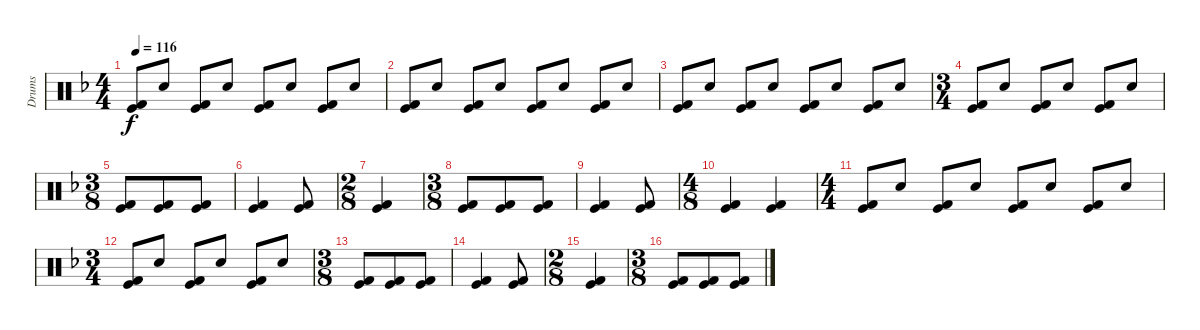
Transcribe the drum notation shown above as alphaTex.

\track ("Drums" "Drums") {instrument percussion}
\staff {score}
\articulation defaults
\ts (4 4)
\tempo 116
\clef neutral
\ks f
("Kick (hit)" "Kick (hit) 2").8{dy f} "Snare (hit) 2".8 ("Kick (hit)" "Kick (hit) 2").8 "Snare (hit) 2".8 ("Kick (hit)" "Kick (hit) 2").8 "Snare (hit) 2".8 ("Kick (hit)" "Kick (hit) 2").8 "Snare (hit) 2".8 |
("Kick (hit)" "Kick (hit) 2").8 "Snare (hit) 2".8 ("Kick (hit)" "Kick (hit) 2").8 "Snare (hit) 2".8 ("Kick (hit)" "Kick (hit) 2").8 "Snare (hit) 2".8 ("Kick (hit)" "Kick (hit) 2").8 "Snare (hit) 2".8 |
("Kick (hit)" "Kick (hit) 2").8 "Snare (hit) 2".8 ("Kick (hit)" "Kick (hit) 2").8 "Snare (hit) 2".8 ("Kick (hit)" "Kick (hit) 2").8 "Snare (hit) 2".8 ("Kick (hit)" "Kick (hit) 2").8 "Snare (hit) 2".8 |
\ts (3 4)
("Kick (hit)" "Kick (hit) 2").8 "Snare (hit) 2".8 ("Kick (hit)" "Kick (hit) 2").8 "Snare (hit) 2".8 ("Kick (hit)" "Kick (hit) 2").8 "Snare (hit) 2".8 |
\ts (3 8)
("Kick (hit)" "Kick (hit) 2").8 ("Kick (hit)" "Kick (hit) 2").8 ("Kick (hit)" "Kick (hit) 2").8 |
("Kick (hit)" "Kick (hit) 2").4 ("Kick (hit)" "Kick (hit) 2").8 |
\ts (2 8)
("Kick (hit)" "Kick (hit) 2").4 |
\ts (3 8)
("Kick (hit)" "Kick (hit) 2").8 ("Kick (hit)" "Kick (hit) 2").8 ("Kick (hit)" "Kick (hit) 2").8 |
("Kick (hit)" "Kick (hit) 2").4 ("Kick (hit)" "Kick (hit) 2").8 |
\ts (4 8)
("Kick (hit)" "Kick (hit) 2").4 ("Kick (hit)" "Kick (hit) 2").4 |
\ts (4 4)
("Kick (hit)" "Kick (hit) 2").8 "Snare (hit) 2".8 ("Kick (hit)" "Kick (hit) 2").8 "Snare (hit) 2".8 ("Kick (hit)" "Kick (hit) 2").8 "Snare (hit) 2".8 ("Kick (hit)" "Kick (hit) 2").8 "Snare (hit) 2".8 |
\ts (3 4)
("Kick (hit)" "Kick (hit) 2").8 "Snare (hit) 2".8 ("Kick (hit)" "Kick (hit) 2").8 "Snare (hit) 2".8 ("Kick (hit)" "Kick (hit) 2").8 "Snare (hit) 2".8 |
\ts (3 8)
("Kick (hit)" "Kick (hit) 2").8 ("Kick (hit)" "Kick (hit) 2").8 ("Kick (hit)" "Kick (hit) 2").8 |
("Kick (hit)" "Kick (hit) 2").4 ("Kick (hit)" "Kick (hit) 2").8 |
\ts (2 8)
("Kick (hit)" "Kick (hit) 2").4 |
\ts (3 8)
("Kick (hit)" "Kick (hit) 2").8 ("Kick (hit)" "Kick (hit) 2").8 ("Kick (hit)" "Kick (hit) 2").8
